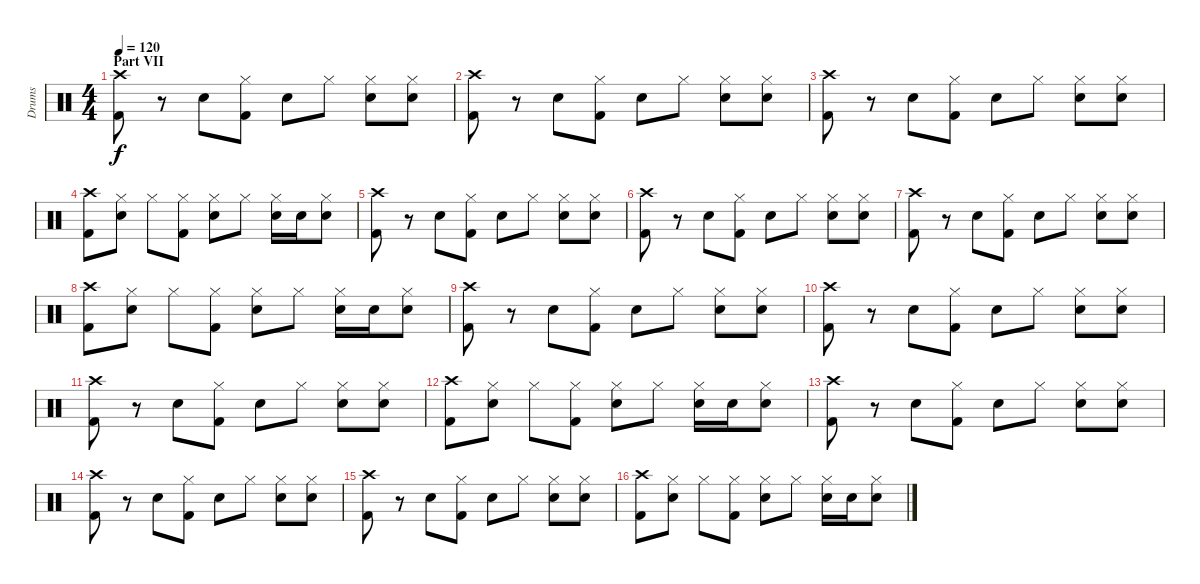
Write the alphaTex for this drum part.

\track ("Drums" "Drums") {instrument percussion}
\staff {score}
\articulation defaults
\ts (4 4)
\section ("" "Part VII")
\tempo 120
\clef neutral
\ks c
("Crash high (hit)" "Kick (hit) 2").8{dy f} r.8 "Electric Snare (hit)".8 ("Hi-Hat (closed)" "Kick (hit) 2").8 "Snare (hit) 2".8 "Hi-Hat (closed)".8 ("Hi-Hat (closed)" "Electric Snare (hit)").8 ("Hi-Hat (closed)" "Snare (hit) 2").8 |
("Crash high (hit)" "Kick (hit) 2").8 r.8 "Electric Snare (hit)".8 ("Hi-Hat (closed)" "Kick (hit) 2").8 "Snare (hit) 2".8 "Hi-Hat (closed)".8 ("Hi-Hat (closed)" "Electric Snare (hit)").8 ("Hi-Hat (closed)" "Snare (hit) 2").8 |
("Crash high (hit)" "Kick (hit) 2").8 r.8 "Electric Snare (hit)".8 ("Hi-Hat (closed)" "Kick (hit) 2").8 "Snare (hit) 2".8 "Hi-Hat (closed)".8 ("Hi-Hat (closed)" "Electric Snare (hit)").8 ("Hi-Hat (closed)" "Snare (hit) 2").8 |
("Crash high (hit)" "Kick (hit) 2").8 ("Hi-Hat (closed)" "Snare (hit) 2").8 "Hi-Hat (closed)".8 ("Hi-Hat (closed)" "Kick (hit) 2").8 ("Hi-Hat (closed)" "Snare (hit) 2").8 "Hi-Hat (closed)".8 ("Hi-Hat (closed)" "Snare (hit) 2").16 "Snare (hit) 2".16 ("Hi-Hat (closed)" "Snare (hit) 2").8 |
("Crash high (hit)" "Kick (hit) 2").8 r.8 "Electric Snare (hit)".8 ("Hi-Hat (closed)" "Kick (hit) 2").8 "Snare (hit) 2".8 "Hi-Hat (closed)".8 ("Hi-Hat (closed)" "Electric Snare (hit)").8 ("Hi-Hat (closed)" "Snare (hit) 2").8 |
("Crash high (hit)" "Kick (hit) 2").8 r.8 "Electric Snare (hit)".8 ("Hi-Hat (closed)" "Kick (hit) 2").8 "Snare (hit) 2".8 "Hi-Hat (closed)".8 ("Hi-Hat (closed)" "Electric Snare (hit)").8 ("Hi-Hat (closed)" "Snare (hit) 2").8 |
("Crash high (hit)" "Kick (hit) 2").8 r.8 "Electric Snare (hit)".8 ("Hi-Hat (closed)" "Kick (hit) 2").8 "Snare (hit) 2".8 "Hi-Hat (closed)".8 ("Hi-Hat (closed)" "Electric Snare (hit)").8 ("Hi-Hat (closed)" "Snare (hit) 2").8 |
("Crash high (hit)" "Kick (hit) 2").8 ("Hi-Hat (closed)" "Snare (hit) 2").8 "Hi-Hat (closed)".8 ("Hi-Hat (closed)" "Kick (hit) 2").8 ("Hi-Hat (closed)" "Snare (hit) 2").8 "Hi-Hat (closed)".8 ("Hi-Hat (closed)" "Snare (hit) 2").16 "Snare (hit) 2".16 ("Hi-Hat (closed)" "Snare (hit) 2").8 |
("Crash high (hit)" "Kick (hit) 2").8 r.8 "Electric Snare (hit)".8 ("Hi-Hat (closed)" "Kick (hit) 2").8 "Snare (hit) 2".8 "Hi-Hat (closed)".8 ("Hi-Hat (closed)" "Electric Snare (hit)").8 ("Hi-Hat (closed)" "Snare (hit) 2").8 |
("Crash high (hit)" "Kick (hit) 2").8 r.8 "Electric Snare (hit)".8 ("Hi-Hat (closed)" "Kick (hit) 2").8 "Snare (hit) 2".8 "Hi-Hat (closed)".8 ("Hi-Hat (closed)" "Electric Snare (hit)").8 ("Hi-Hat (closed)" "Snare (hit) 2").8 |
("Crash high (hit)" "Kick (hit) 2").8 r.8 "Electric Snare (hit)".8 ("Hi-Hat (closed)" "Kick (hit) 2").8 "Snare (hit) 2".8 "Hi-Hat (closed)".8 ("Hi-Hat (closed)" "Electric Snare (hit)").8 ("Hi-Hat (closed)" "Snare (hit) 2").8 |
("Crash high (hit)" "Kick (hit) 2").8 ("Hi-Hat (closed)" "Snare (hit) 2").8 "Hi-Hat (closed)".8 ("Hi-Hat (closed)" "Kick (hit) 2").8 ("Hi-Hat (closed)" "Snare (hit) 2").8 "Hi-Hat (closed)".8 ("Hi-Hat (closed)" "Snare (hit) 2").16 "Snare (hit) 2".16 ("Hi-Hat (closed)" "Snare (hit) 2").8 |
("Crash high (hit)" "Kick (hit) 2").8 r.8 "Electric Snare (hit)".8 ("Hi-Hat (closed)" "Kick (hit) 2").8 "Snare (hit) 2".8 "Hi-Hat (closed)".8 ("Hi-Hat (closed)" "Electric Snare (hit)").8 ("Hi-Hat (closed)" "Snare (hit) 2").8 |
("Crash high (hit)" "Kick (hit) 2").8 r.8 "Electric Snare (hit)".8 ("Hi-Hat (closed)" "Kick (hit) 2").8 "Snare (hit) 2".8 "Hi-Hat (closed)".8 ("Hi-Hat (closed)" "Electric Snare (hit)").8 ("Hi-Hat (closed)" "Snare (hit) 2").8 |
("Crash high (hit)" "Kick (hit) 2").8 r.8 "Electric Snare (hit)".8 ("Hi-Hat (closed)" "Kick (hit) 2").8 "Snare (hit) 2".8 "Hi-Hat (closed)".8 ("Hi-Hat (closed)" "Electric Snare (hit)").8 ("Hi-Hat (closed)" "Snare (hit) 2").8 |
("Crash high (hit)" "Kick (hit) 2").8 ("Hi-Hat (closed)" "Snare (hit) 2").8 "Hi-Hat (closed)".8 ("Hi-Hat (closed)" "Kick (hit) 2").8 ("Hi-Hat (closed)" "Snare (hit) 2").8 "Hi-Hat (closed)".8 ("Hi-Hat (closed)" "Snare (hit) 2").16 "Snare (hit) 2".16 ("Hi-Hat (closed)" "Snare (hit) 2").8
